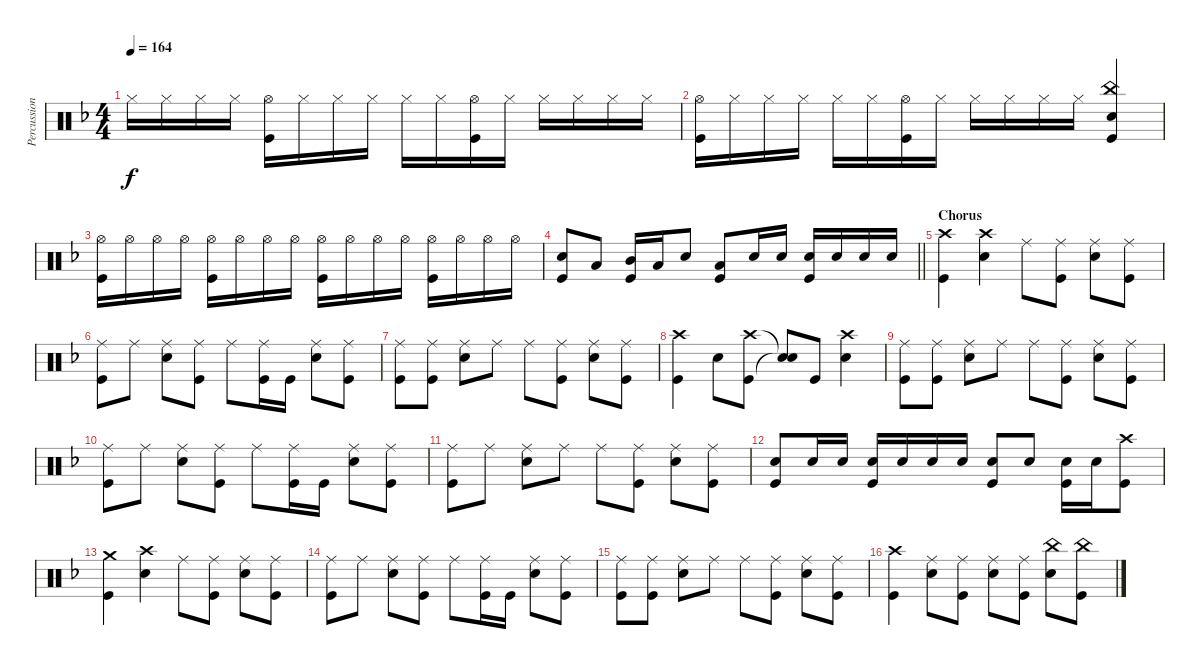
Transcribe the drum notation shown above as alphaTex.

\track ("Percussions" "Percussion") {instrument percussion}
\staff {score}
\articulation defaults
\ts (4 4)
\tempo 164
\clef neutral
\ks dminor "Hi-Hat (closed)".16{dy f} "Hi-Hat (closed)".16 "Hi-Hat (closed)".16 "Hi-Hat (closed)".16
("Hi-Hat (open)" "Kick (hit)").16 "Hi-Hat (closed)".16 "Hi-Hat (closed)".16 "Hi-Hat (closed)".16 "Hi-Hat (closed)".16 "Hi-Hat (closed)".16 ("Hi-Hat (open)" "Kick (hit)").16 "Hi-Hat (closed)".16 "Hi-Hat (closed)".16 "Hi-Hat (closed)".16 "Hi-Hat (closed)".16 "Hi-Hat (closed)".16 |
("Hi-Hat (open)" "Kick (hit)").16 "Hi-Hat (closed)".16 "Hi-Hat (closed)".16 "Hi-Hat (closed)".16 "Hi-Hat (closed)".16 "Hi-Hat (closed)".16 ("Hi-Hat (open)" "Kick (hit)").16 "Hi-Hat (closed)".16 "Hi-Hat (closed)".16 "Hi-Hat (closed)".16 "Hi-Hat (closed)".16 "Hi-Hat (closed)".16 ("China (hit)" "Electric Snare (hit)" "Kick (hit)").4 |
("Hi-Hat (open)" "Kick (hit)").16 "Hi-Hat (open)".16 "Hi-Hat (open)".16 "Hi-Hat (open)".16 ("Hi-Hat (open)" "Kick (hit)").16 "Hi-Hat (open)".16 "Hi-Hat (open)".16 "Hi-Hat (open)".16 ("Hi-Hat (open)" "Kick (hit)").16 "Hi-Hat (open)".16 "Hi-Hat (open)".16 "Hi-Hat (open)".16 ("Hi-Hat (open)" "Kick (hit)").16 "Hi-Hat (open)".16 "Hi-Hat (open)".16 "Hi-Hat (open)".16 |
\barLineRight lightlight
("Electric Snare (hit)" "Kick (hit)").8 "Low Tom (hit)".8 ("Mid Tom (hit)" "Kick (hit)").16 "Low Tom (hit)".16 "Electric Snare (hit)".8 ("Low Tom (hit)" "Kick (hit)").8 "Electric Snare (hit)".16 "Electric Snare (hit)".16 ("Electric Snare (hit)" "Kick (hit)").16 "Electric Snare (hit)".16 "Electric Snare (hit)".16 "Electric Snare (hit)".16 |
\section ("" "Chorus")
("Crash high (hit)" "Kick (hit)").4 ("Crash high (hit)" "Electric Snare (hit)").4 "Ride (middle)".8 ("Ride (middle)" "Kick (hit)").8 ("Ride (middle)" "Electric Snare (hit)").8 ("Ride (middle)" "Kick (hit)").8 |
("Ride (middle)" "Kick (hit)").8 "Ride (middle)".8 ("Ride (middle)" "Electric Snare (hit)").8 ("Ride (middle)" "Kick (hit)").8 "Ride (middle)".8 ("Ride (middle)" "Kick (hit)").16 "Kick (hit)".16 ("Ride (middle)" "Electric Snare (hit)").8 ("Ride (middle)" "Kick (hit)").8 |
("Ride (middle)" "Kick (hit)").8 ("Ride (middle)" "Kick (hit)").8 ("Ride (middle)" "Electric Snare (hit)").8 "Ride (middle)".8 "Ride (middle)".8 ("Ride (middle)" "Kick (hit)").8 ("Ride (middle)" "Electric Snare (hit)").8 ("Ride (middle)" "Kick (hit)").8 |
("Crash high (hit)" "Kick (hit)").4 "Electric Snare (hit)".8 ("Crash high (hit)" "Kick (hit)").8 ("Snare (hit)"{t} "Snare (hit)"{t}).8 "Kick (hit)".8 ("Crash high (hit)" "Electric Snare (hit)").4 |
("Ride (middle)" "Kick (hit)").8 ("Ride (middle)" "Kick (hit)").8 ("Ride (middle)" "Electric Snare (hit)").8 "Ride (middle)".8 "Ride (middle)".8 ("Ride (middle)" "Kick (hit)").8 ("Ride (middle)" "Electric Snare (hit)").8 ("Ride (middle)" "Kick (hit)").8 |
("Ride (middle)" "Kick (hit)").8 "Ride (middle)".8 ("Ride (middle)" "Electric Snare (hit)").8 ("Ride (middle)" "Kick (hit)").8 "Ride (middle)".8 ("Ride (middle)" "Kick (hit)").16 "Kick (hit)".16 ("Ride (middle)" "Electric Snare (hit)").8 ("Ride (middle)" "Kick (hit)").8 |
("Ride (middle)" "Kick (hit)").8 "Ride (middle)".8 ("Ride (middle)" "Electric Snare (hit)").8 "Ride (middle)".8 "Ride (middle)".8 ("Ride (middle)" "Kick (hit)").8 ("Ride (middle)" "Electric Snare (hit)").8 ("Ride (middle)" "Kick (hit)").8 |
("Electric Snare (hit)" "Kick (hit)").8 "Electric Snare (hit)".16 "Electric Snare (hit)".16 ("Electric Snare (hit)" "Kick (hit)").16 "Electric Snare (hit)".16 "Electric Snare (hit)".16 "Electric Snare (hit)".16 ("Electric Snare (hit)" "Kick (hit)").8 "Electric Snare (hit)".8 ("Electric Snare (hit)" "Kick (hit)").16 "Electric Snare (hit)".16 ("Crash high (hit)" "Kick (hit)").8 |
("Crash medium (hit)" "Kick (hit)").4 ("Crash high (hit)" "Electric Snare (hit)").4 "Ride (middle)".8 ("Ride (middle)" "Kick (hit)").8 ("Ride (middle)" "Electric Snare (hit)").8 ("Ride (middle)" "Kick (hit)").8 |
("Ride (middle)" "Kick (hit)").8 "Ride (middle)".8 ("Ride (middle)" "Electric Snare (hit)").8 ("Ride (middle)" "Kick (hit)").8 "Ride (middle)".8 ("Ride (middle)" "Kick (hit)").16 "Kick (hit)".16 ("Ride (middle)" "Electric Snare (hit)").8 ("Ride (middle)" "Kick (hit)").8 |
("Ride (middle)" "Kick (hit)").8 ("Ride (middle)" "Kick (hit)").8 ("Ride (middle)" "Electric Snare (hit)").8 "Ride (middle)".8 "Ride (middle)".8 ("Ride (middle)" "Kick (hit)").8 ("Ride (middle)" "Electric Snare (hit)").8 ("Ride (middle)" "Kick (hit)").8 |
("Crash high (hit)" "Kick (hit)").4 ("Ride (middle)" "Electric Snare (hit)").8 ("Ride (middle)" "Kick (hit)").8 ("Ride (middle)" "Electric Snare (hit)").8 ("Ride (middle)" "Kick (hit)").8 ("China (hit)" "Electric Snare (hit)").8 ("China (hit)" "Kick (hit)").8
